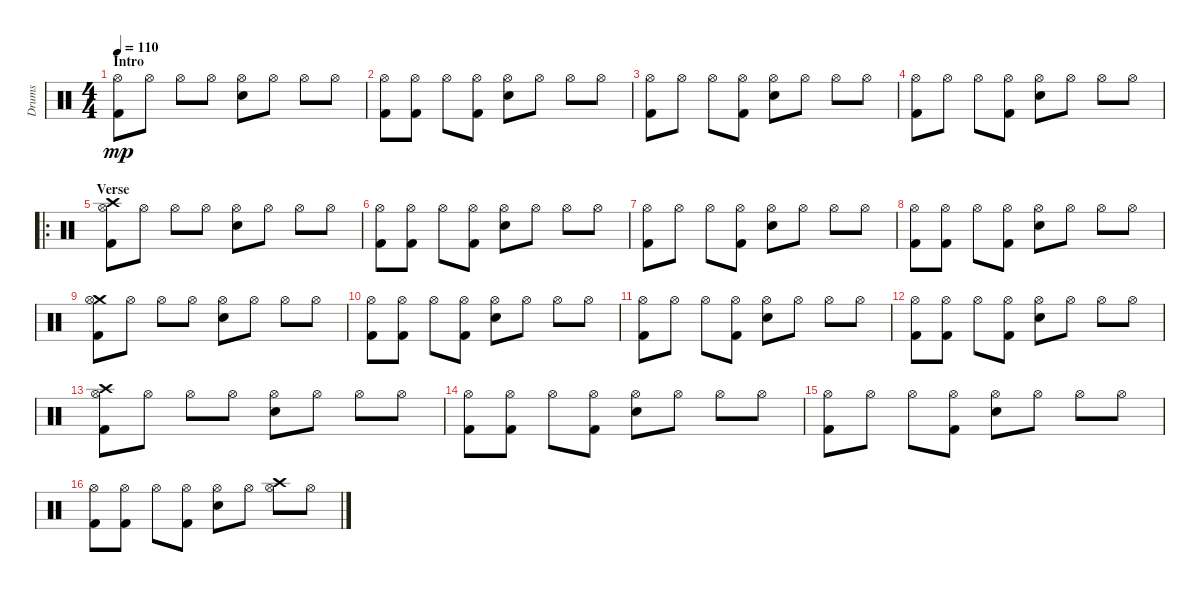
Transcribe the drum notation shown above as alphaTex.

\track ("Drums" "Drums") {instrument percussion}
\staff {score}
\articulation defaults
\ts (4 4)
\section ("" "Intro")
\tempo 110
\clef neutral
\ks c
("Hi-Hat (open)" "Kick (hit) 2").8{dy mp} "Hi-Hat (open)".8 "Hi-Hat (open)".8 "Hi-Hat (open)".8 ("Hi-Hat (open)" "Snare (hit) 2").8 "Hi-Hat (open)".8 "Hi-Hat (open)".8 "Hi-Hat (open)".8 |
("Hi-Hat (open)" "Kick (hit) 2").8 ("Hi-Hat (open)" "Kick (hit) 2").8 "Hi-Hat (open)".8 ("Hi-Hat (open)" "Kick (hit) 2").8 ("Hi-Hat (open)" "Snare (hit) 2").8 "Hi-Hat (open)".8 "Hi-Hat (open)".8 "Hi-Hat (open)".8 |
("Hi-Hat (open)" "Kick (hit) 2").8 "Hi-Hat (open)".8 "Hi-Hat (open)".8 ("Hi-Hat (open)" "Kick (hit) 2").8 ("Hi-Hat (open)" "Snare (hit) 2").8 "Hi-Hat (open)".8 "Hi-Hat (open)".8 "Hi-Hat (open)".8 |
("Hi-Hat (open)" "Kick (hit) 2").8 "Hi-Hat (open)".8 "Hi-Hat (open)".8 ("Hi-Hat (open)" "Kick (hit) 2").8 ("Hi-Hat (open)" "Snare (hit) 2").8 "Hi-Hat (open)".8 "Hi-Hat (open)".8 "Hi-Hat (open)".8 |
\ro
\section ("" "Verse")
("Crash high (hit)" "Hi-Hat (open)" "Kick (hit) 2").8 "Hi-Hat (open)".8 "Hi-Hat (open)".8 "Hi-Hat (open)".8 ("Hi-Hat (open)" "Snare (hit) 2").8 "Hi-Hat (open)".8 "Hi-Hat (open)".8 "Hi-Hat (open)".8 |
("Hi-Hat (open)" "Kick (hit) 2").8 ("Hi-Hat (open)" "Kick (hit) 2").8 "Hi-Hat (open)".8 ("Hi-Hat (open)" "Kick (hit) 2").8 ("Hi-Hat (open)" "Snare (hit) 2").8 "Hi-Hat (open)".8 "Hi-Hat (open)".8 "Hi-Hat (open)".8 |
("Hi-Hat (open)" "Kick (hit) 2").8 "Hi-Hat (open)".8 "Hi-Hat (open)".8 ("Hi-Hat (open)" "Kick (hit) 2").8 ("Hi-Hat (open)" "Snare (hit) 2").8 "Hi-Hat (open)".8 "Hi-Hat (open)".8 "Hi-Hat (open)".8 |
("Hi-Hat (open)" "Kick (hit) 2").8 ("Hi-Hat (open)" "Kick (hit) 2").8 "Hi-Hat (open)".8 ("Hi-Hat (open)" "Kick (hit) 2").8 ("Hi-Hat (open)" "Snare (hit) 2").8 "Hi-Hat (open)".8 "Hi-Hat (open)".8 "Hi-Hat (open)".8 |
("Crash medium (hit)" "Hi-Hat (open)" "Kick (hit) 2").8 "Hi-Hat (open)".8 "Hi-Hat (open)".8 "Hi-Hat (open)".8 ("Hi-Hat (open)" "Snare (hit) 2").8 "Hi-Hat (open)".8 "Hi-Hat (open)".8 "Hi-Hat (open)".8 |
("Hi-Hat (open)" "Kick (hit) 2").8 ("Hi-Hat (open)" "Kick (hit) 2").8 "Hi-Hat (open)".8 ("Hi-Hat (open)" "Kick (hit) 2").8 ("Hi-Hat (open)" "Snare (hit) 2").8 "Hi-Hat (open)".8 "Hi-Hat (open)".8 "Hi-Hat (open)".8 |
("Hi-Hat (open)" "Kick (hit) 2").8 "Hi-Hat (open)".8 "Hi-Hat (open)".8 ("Hi-Hat (open)" "Kick (hit) 2").8 ("Hi-Hat (open)" "Snare (hit) 2").8 "Hi-Hat (open)".8 "Hi-Hat (open)".8 "Hi-Hat (open)".8 |
("Hi-Hat (open)" "Kick (hit) 2").8 ("Hi-Hat (open)" "Kick (hit) 2").8 "Hi-Hat (open)".8 ("Hi-Hat (open)" "Kick (hit) 2").8 ("Hi-Hat (open)" "Snare (hit) 2").8 "Hi-Hat (open)".8 "Hi-Hat (open)".8 "Hi-Hat (open)".8 |
("Crash high (hit)" "Hi-Hat (open)" "Kick (hit) 2").8 "Hi-Hat (open)".8 "Hi-Hat (open)".8 "Hi-Hat (open)".8 ("Hi-Hat (open)" "Snare (hit) 2").8 "Hi-Hat (open)".8 "Hi-Hat (open)".8 "Hi-Hat (open)".8 |
("Hi-Hat (open)" "Kick (hit) 2").8 ("Hi-Hat (open)" "Kick (hit) 2").8 "Hi-Hat (open)".8 ("Hi-Hat (open)" "Kick (hit) 2").8 ("Hi-Hat (open)" "Snare (hit) 2").8 "Hi-Hat (open)".8 "Hi-Hat (open)".8 "Hi-Hat (open)".8 |
("Hi-Hat (open)" "Kick (hit) 2").8 "Hi-Hat (open)".8 "Hi-Hat (open)".8 ("Hi-Hat (open)" "Kick (hit) 2").8 ("Hi-Hat (open)" "Snare (hit) 2").8 "Hi-Hat (open)".8 "Hi-Hat (open)".8 "Hi-Hat (open)".8 |
("Hi-Hat (open)" "Kick (hit) 2").8 ("Hi-Hat (open)" "Kick (hit) 2").8 "Hi-Hat (open)".8 ("Hi-Hat (open)" "Kick (hit) 2").8 ("Hi-Hat (open)" "Snare (hit) 2").8 "Hi-Hat (open)".8 ("Crash high (hit)" "Hi-Hat (open)").8 "Hi-Hat (open)".8
